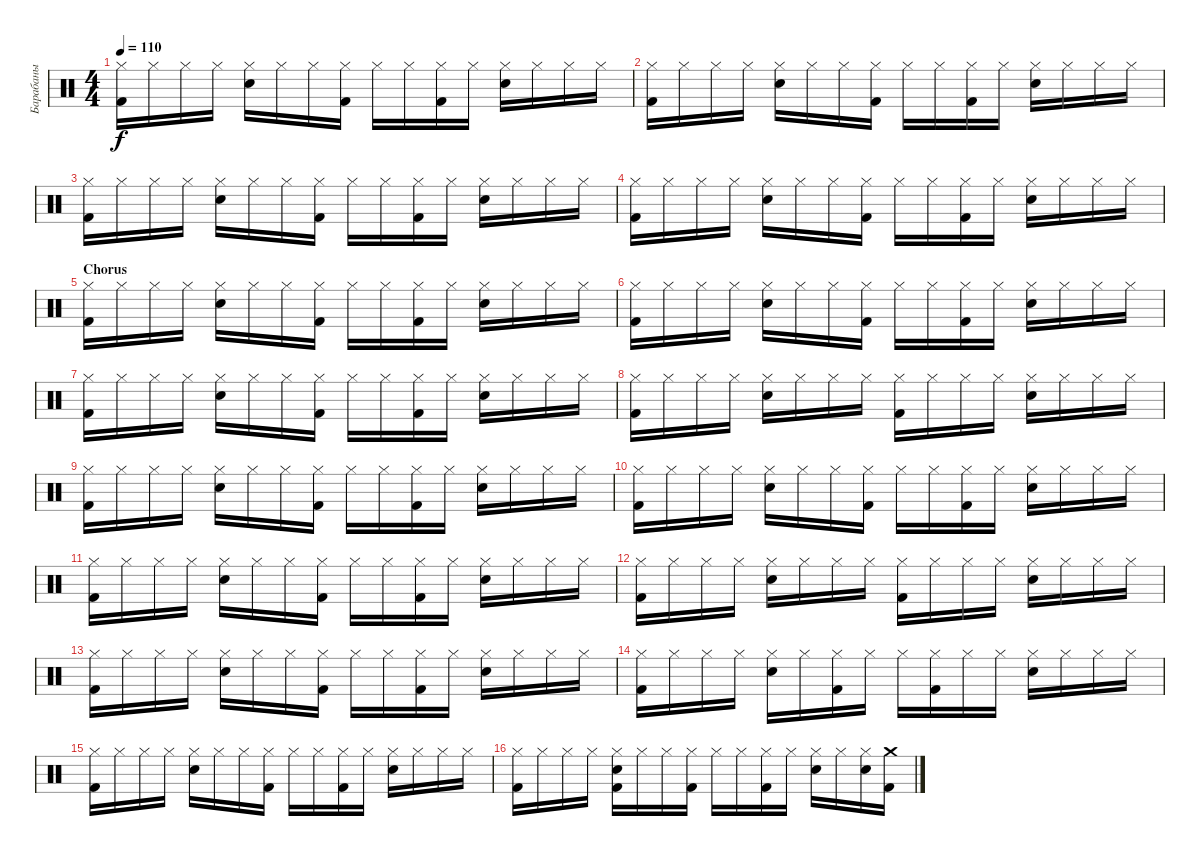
\track ("Барабаны" "Барабаны") {instrument percussion}
\staff {score}
\articulation defaults
\ts (4 4)
\tempo 110
\clef neutral
\ks c
("Hi-Hat (closed)" "Kick (hit) 2").16{dy f} "Hi-Hat (closed)".16 "Hi-Hat (closed)".16 "Hi-Hat (closed)".16 ("Hi-Hat (closed)" "Snare (hit) 2").16 "Hi-Hat (closed)".16 "Hi-Hat (closed)".16 ("Hi-Hat (closed)" "Kick (hit) 2").16 "Hi-Hat (closed)".16 "Hi-Hat (closed)".16 ("Hi-Hat (closed)" "Kick (hit) 2").16 "Hi-Hat (closed)".16 ("Hi-Hat (closed)" "Snare (hit) 2").16 "Hi-Hat (closed)".16 "Hi-Hat (closed)".16 "Hi-Hat (closed)".16 |
("Hi-Hat (closed)" "Kick (hit) 2").16 "Hi-Hat (closed)".16 "Hi-Hat (closed)".16 "Hi-Hat (closed)".16 ("Hi-Hat (closed)" "Snare (hit) 2").16 "Hi-Hat (closed)".16 "Hi-Hat (closed)".16 ("Hi-Hat (closed)" "Kick (hit) 2").16 "Hi-Hat (closed)".16 "Hi-Hat (closed)".16 ("Hi-Hat (closed)" "Kick (hit) 2").16 "Hi-Hat (closed)".16 ("Hi-Hat (closed)" "Snare (hit) 2").16 "Hi-Hat (closed)".16 "Hi-Hat (closed)".16 "Hi-Hat (closed)".16 |
("Hi-Hat (closed)" "Kick (hit) 2").16 "Hi-Hat (closed)".16 "Hi-Hat (closed)".16 "Hi-Hat (closed)".16 ("Hi-Hat (closed)" "Snare (hit) 2").16 "Hi-Hat (closed)".16 "Hi-Hat (closed)".16 ("Hi-Hat (closed)" "Kick (hit) 2").16 "Hi-Hat (closed)".16 "Hi-Hat (closed)".16 ("Hi-Hat (closed)" "Kick (hit) 2").16 "Hi-Hat (closed)".16 ("Hi-Hat (closed)" "Snare (hit) 2").16 "Hi-Hat (closed)".16 "Hi-Hat (closed)".16 "Hi-Hat (closed)".16 |
("Hi-Hat (closed)" "Kick (hit) 2").16 "Hi-Hat (closed)".16 "Hi-Hat (closed)".16 "Hi-Hat (closed)".16 ("Hi-Hat (closed)" "Snare (hit) 2").16 "Hi-Hat (closed)".16 "Hi-Hat (closed)".16 ("Hi-Hat (closed)" "Kick (hit) 2").16 "Hi-Hat (closed)".16 "Hi-Hat (closed)".16 ("Hi-Hat (closed)" "Kick (hit) 2").16 "Hi-Hat (closed)".16 ("Hi-Hat (closed)" "Snare (hit) 2").16 "Hi-Hat (closed)".16 "Hi-Hat (closed)".16 "Hi-Hat (closed)".16 |
\section ("" "Chorus")
("Hi-Hat (closed)" "Kick (hit) 2").16 "Hi-Hat (closed)".16 "Hi-Hat (closed)".16 "Hi-Hat (closed)".16 ("Hi-Hat (closed)" "Snare (hit) 2").16 "Hi-Hat (closed)".16 "Hi-Hat (closed)".16 ("Hi-Hat (closed)" "Kick (hit) 2").16 "Hi-Hat (closed)".16 "Hi-Hat (closed)".16 ("Hi-Hat (closed)" "Kick (hit) 2").16 "Hi-Hat (closed)".16 ("Hi-Hat (closed)" "Snare (hit) 2").16 "Hi-Hat (closed)".16 "Hi-Hat (closed)".16 "Hi-Hat (closed)".16 |
("Hi-Hat (closed)" "Kick (hit) 2").16 "Hi-Hat (closed)".16 "Hi-Hat (closed)".16 "Hi-Hat (closed)".16 ("Hi-Hat (closed)" "Snare (hit) 2").16 "Hi-Hat (closed)".16 "Hi-Hat (closed)".16 ("Hi-Hat (closed)" "Kick (hit) 2").16 "Hi-Hat (closed)".16 "Hi-Hat (closed)".16 ("Hi-Hat (closed)" "Kick (hit) 2").16 "Hi-Hat (closed)".16 ("Hi-Hat (closed)" "Snare (hit) 2").16 "Hi-Hat (closed)".16 "Hi-Hat (closed)".16 "Hi-Hat (closed)".16 |
("Hi-Hat (closed)" "Kick (hit) 2").16 "Hi-Hat (closed)".16 "Hi-Hat (closed)".16 "Hi-Hat (closed)".16 ("Hi-Hat (closed)" "Snare (hit) 2").16 "Hi-Hat (closed)".16 "Hi-Hat (closed)".16 ("Hi-Hat (closed)" "Kick (hit) 2").16 "Hi-Hat (closed)".16 "Hi-Hat (closed)".16 ("Hi-Hat (closed)" "Kick (hit) 2").16 "Hi-Hat (closed)".16 ("Hi-Hat (closed)" "Snare (hit) 2").16 "Hi-Hat (closed)".16 "Hi-Hat (closed)".16 "Hi-Hat (closed)".16 |
("Hi-Hat (closed)" "Kick (hit) 2").16 "Hi-Hat (closed)".16 "Hi-Hat (closed)".16 "Hi-Hat (closed)".16 ("Hi-Hat (closed)" "Snare (hit) 2").16 "Hi-Hat (closed)".16 "Hi-Hat (closed)".16 "Hi-Hat (closed)".16 ("Hi-Hat (closed)" "Kick (hit) 2").16 "Hi-Hat (closed)".16 "Hi-Hat (closed)".16 "Hi-Hat (closed)".16 ("Hi-Hat (closed)" "Snare (hit) 2").16 "Hi-Hat (closed)".16 "Hi-Hat (closed)".16 "Hi-Hat (closed)".16 |
("Hi-Hat (closed)" "Kick (hit) 2").16 "Hi-Hat (closed)".16 "Hi-Hat (closed)".16 "Hi-Hat (closed)".16 ("Hi-Hat (closed)" "Snare (hit) 2").16 "Hi-Hat (closed)".16 "Hi-Hat (closed)".16 ("Hi-Hat (closed)" "Kick (hit) 2").16 "Hi-Hat (closed)".16 "Hi-Hat (closed)".16 ("Hi-Hat (closed)" "Kick (hit) 2").16 "Hi-Hat (closed)".16 ("Hi-Hat (closed)" "Snare (hit) 2").16 "Hi-Hat (closed)".16 "Hi-Hat (closed)".16 "Hi-Hat (closed)".16 |
("Hi-Hat (closed)" "Kick (hit) 2").16 "Hi-Hat (closed)".16 "Hi-Hat (closed)".16 "Hi-Hat (closed)".16 ("Hi-Hat (closed)" "Snare (hit) 2").16 "Hi-Hat (closed)".16 "Hi-Hat (closed)".16 ("Hi-Hat (closed)" "Kick (hit) 2").16 "Hi-Hat (closed)".16 "Hi-Hat (closed)".16 ("Hi-Hat (closed)" "Kick (hit) 2").16 "Hi-Hat (closed)".16 ("Hi-Hat (closed)" "Snare (hit) 2").16 "Hi-Hat (closed)".16 "Hi-Hat (closed)".16 "Hi-Hat (closed)".16 |
("Hi-Hat (closed)" "Kick (hit) 2").16 "Hi-Hat (closed)".16 "Hi-Hat (closed)".16 "Hi-Hat (closed)".16 ("Hi-Hat (closed)" "Snare (hit) 2").16 "Hi-Hat (closed)".16 "Hi-Hat (closed)".16 ("Hi-Hat (closed)" "Kick (hit) 2").16 "Hi-Hat (closed)".16 "Hi-Hat (closed)".16 ("Hi-Hat (closed)" "Kick (hit) 2").16 "Hi-Hat (closed)".16 ("Hi-Hat (closed)" "Snare (hit) 2").16 "Hi-Hat (closed)".16 "Hi-Hat (closed)".16 "Hi-Hat (closed)".16 |
("Hi-Hat (closed)" "Kick (hit) 2").16 "Hi-Hat (closed)".16 "Hi-Hat (closed)".16 "Hi-Hat (closed)".16 ("Hi-Hat (closed)" "Snare (hit) 2").16 "Hi-Hat (closed)".16 "Hi-Hat (closed)".16 "Hi-Hat (closed)".16 ("Hi-Hat (closed)" "Kick (hit) 2").16 "Hi-Hat (closed)".16 "Hi-Hat (closed)".16 "Hi-Hat (closed)".16 ("Hi-Hat (closed)" "Snare (hit) 2").16 "Hi-Hat (closed)".16 "Hi-Hat (closed)".16 "Hi-Hat (closed)".16 |
("Hi-Hat (closed)" "Kick (hit) 2").16 "Hi-Hat (closed)".16 "Hi-Hat (closed)".16 "Hi-Hat (closed)".16 ("Hi-Hat (closed)" "Snare (hit) 2").16 "Hi-Hat (closed)".16 "Hi-Hat (closed)".16 ("Hi-Hat (closed)" "Kick (hit) 2").16 "Hi-Hat (closed)".16 "Hi-Hat (closed)".16 ("Hi-Hat (closed)" "Kick (hit) 2").16 "Hi-Hat (closed)".16 ("Hi-Hat (closed)" "Snare (hit) 2").16 "Hi-Hat (closed)".16 "Hi-Hat (closed)".16 "Hi-Hat (closed)".16 |
("Hi-Hat (closed)" "Kick (hit) 2").16 "Hi-Hat (closed)".16 "Hi-Hat (closed)".16 "Hi-Hat (closed)".16 ("Hi-Hat (closed)" "Snare (hit) 2").16 "Hi-Hat (closed)".16 ("Hi-Hat (closed)" "Kick (hit) 2").16 "Hi-Hat (closed)".16 "Hi-Hat (closed)".16 ("Hi-Hat (closed)" "Kick (hit) 2").16 "Hi-Hat (closed)".16 "Hi-Hat (closed)".16 ("Hi-Hat (closed)" "Snare (hit) 2").16 "Hi-Hat (closed)".16 "Hi-Hat (closed)".16 "Hi-Hat (closed)".16 |
("Hi-Hat (closed)" "Kick (hit) 2").16 "Hi-Hat (closed)".16 "Hi-Hat (closed)".16 "Hi-Hat (closed)".16 ("Hi-Hat (closed)" "Snare (hit) 2").16 "Hi-Hat (closed)".16 "Hi-Hat (closed)".16 ("Hi-Hat (closed)" "Kick (hit) 2").16 "Hi-Hat (closed)".16 "Hi-Hat (closed)".16 ("Hi-Hat (closed)" "Kick (hit) 2").16 "Hi-Hat (closed)".16 ("Hi-Hat (closed)" "Snare (hit) 2").16 "Hi-Hat (closed)".16 "Hi-Hat (closed)".16 "Hi-Hat (closed)".16 |
("Hi-Hat (closed)" "Kick (hit) 2").16 "Hi-Hat (closed)".16 "Hi-Hat (closed)".16 "Hi-Hat (closed)".16 ("Hi-Hat (closed)" "Snare (hit) 2" "Kick (hit) 2").16 "Hi-Hat (closed)".16 "Hi-Hat (closed)".16 ("Hi-Hat (closed)" "Kick (hit) 2").16 "Hi-Hat (closed)".16 "Hi-Hat (closed)".16 ("Hi-Hat (closed)" "Kick (hit) 2").16 "Hi-Hat (closed)".16 ("Hi-Hat (closed)" "Snare (hit) 2").16 "Hi-Hat (closed)".16 ("Hi-Hat (closed)" "Snare (hit) 2").16 ("Crash medium (hit)" "Kick (hit) 2").16
